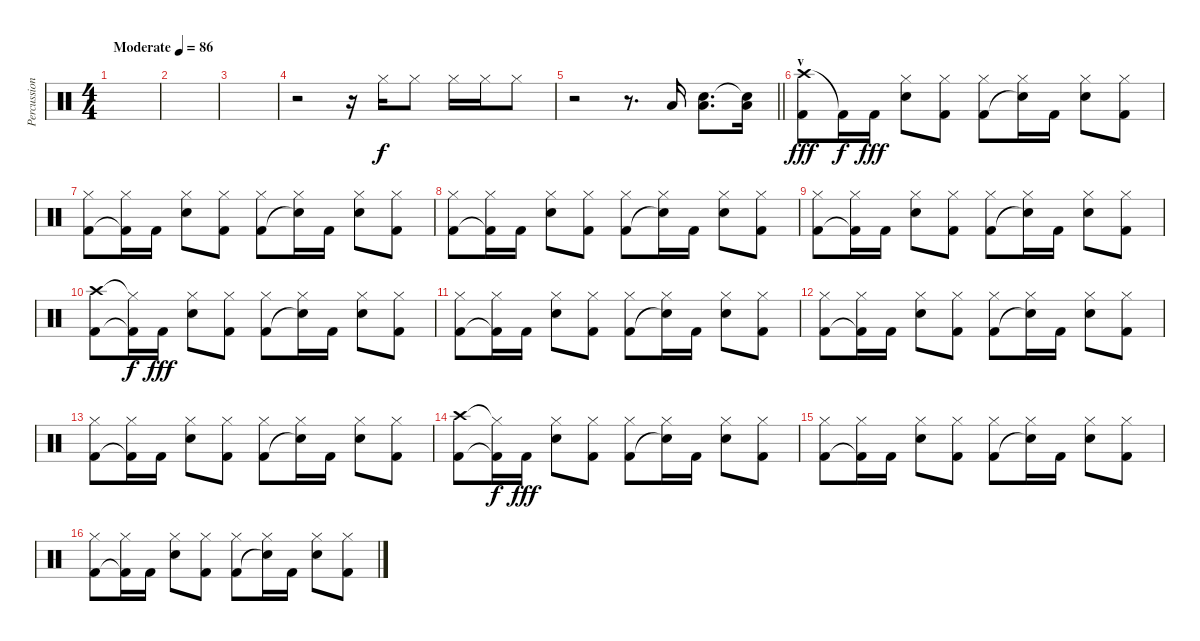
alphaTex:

\track ("Percussion" "Percussion") {instrument percussion}
\staff {score}
\articulation defaults
\ts (4 4)
\tempo (86 "Moderate")
\clef neutral
\ks c
|
|
|
r.2 r.16 "Hi-Hat (closed)".16 "Hi-Hat (closed)".8 "Hi-Hat (closed)".16 "Hi-Hat (closed)".16 "Hi-Hat (closed)".8 |
\barLineRight lightlight
r.2 r.8{d} "Low Floor Tom (hit)".16 ("Electric Snare (hit)" "Low Floor Tom (hit)").8{d} ("Snare (hit)"{t} "Low Floor Tom (hit)").16 |
\section ("" "v")
("Crash high (hit)" "Kick (hit) 2").8{dy fff} "Kick (hit) 2"{t}.16{dy f} "Kick (hit) 2".16{dy fff} ("Hi-Hat (closed)" "Electric Snare (hit)").8 ("Hi-Hat (closed)" "Kick (hit) 2").8 ("Hi-Hat (closed)" "Kick (hit) 2").8 ("Hi-Hat (closed)" "Snare (hit)"{t}).16 "Kick (hit) 2".16 ("Hi-Hat (closed)" "Electric Snare (hit)").8 ("Hi-Hat (closed)" "Kick (hit) 2").8 |
("Hi-Hat (closed)" "Kick (hit) 2").8 ("Hi-Hat (closed)" "Kick (hit) 2"{t}).16 "Kick (hit) 2".16 ("Hi-Hat (closed)" "Electric Snare (hit)").8 ("Hi-Hat (closed)" "Kick (hit) 2").8 ("Hi-Hat (closed)" "Kick (hit) 2").8 ("Hi-Hat (closed)" "Snare (hit)"{t}).16 "Kick (hit) 2".16 ("Hi-Hat (closed)" "Electric Snare (hit)").8 ("Hi-Hat (closed)" "Kick (hit) 2").8 |
("Hi-Hat (closed)" "Kick (hit) 2").8 ("Hi-Hat (closed)" "Kick (hit) 2"{t}).16 "Kick (hit) 2".16 ("Hi-Hat (closed)" "Electric Snare (hit)").8 ("Hi-Hat (closed)" "Kick (hit) 2").8 ("Hi-Hat (closed)" "Kick (hit) 2").8 ("Hi-Hat (closed)" "Snare (hit)"{t}).16 "Kick (hit) 2".16 ("Hi-Hat (closed)" "Electric Snare (hit)").8 ("Hi-Hat (closed)" "Kick (hit) 2").8 |
("Hi-Hat (closed)" "Kick (hit) 2").8 ("Hi-Hat (closed)" "Kick (hit) 2"{t}).16 "Kick (hit) 2".16 ("Hi-Hat (closed)" "Electric Snare (hit)").8 ("Hi-Hat (closed)" "Kick (hit) 2").8 ("Hi-Hat (closed)" "Kick (hit) 2").8 ("Hi-Hat (closed)" "Snare (hit)"{t}).16 "Kick (hit) 2".16 ("Hi-Hat (closed)" "Electric Snare (hit)").8 ("Hi-Hat (closed)" "Kick (hit) 2").8 |
("Crash high (hit)" "Kick (hit) 2").8 ("Hi-Hat (closed)"{t} "Kick (hit) 2"{t}).16{dy f} "Kick (hit) 2".16{dy fff} ("Hi-Hat (closed)" "Electric Snare (hit)").8 ("Hi-Hat (closed)" "Kick (hit) 2").8 ("Hi-Hat (closed)" "Kick (hit) 2").8 ("Hi-Hat (closed)" "Snare (hit)"{t}).16 "Kick (hit) 2".16 ("Hi-Hat (closed)" "Electric Snare (hit)").8 ("Hi-Hat (closed)" "Kick (hit) 2").8 |
("Hi-Hat (closed)" "Kick (hit) 2").8 ("Hi-Hat (closed)" "Kick (hit) 2"{t}).16 "Kick (hit) 2".16 ("Hi-Hat (closed)" "Electric Snare (hit)").8 ("Hi-Hat (closed)" "Kick (hit) 2").8 ("Hi-Hat (closed)" "Kick (hit) 2").8 ("Hi-Hat (closed)" "Snare (hit)"{t}).16 "Kick (hit) 2".16 ("Hi-Hat (closed)" "Electric Snare (hit)").8 ("Hi-Hat (closed)" "Kick (hit) 2").8 |
("Hi-Hat (closed)" "Kick (hit) 2").8 ("Hi-Hat (closed)" "Kick (hit) 2"{t}).16 "Kick (hit) 2".16 ("Hi-Hat (closed)" "Electric Snare (hit)").8 ("Hi-Hat (closed)" "Kick (hit) 2").8 ("Hi-Hat (closed)" "Kick (hit) 2").8 ("Hi-Hat (closed)" "Snare (hit)"{t}).16 "Kick (hit) 2".16 ("Hi-Hat (closed)" "Electric Snare (hit)").8 ("Hi-Hat (closed)" "Kick (hit) 2").8 |
("Hi-Hat (closed)" "Kick (hit) 2").8 ("Hi-Hat (closed)" "Kick (hit) 2"{t}).16 "Kick (hit) 2".16 ("Hi-Hat (closed)" "Electric Snare (hit)").8 ("Hi-Hat (closed)" "Kick (hit) 2").8 ("Hi-Hat (closed)" "Kick (hit) 2").8 ("Hi-Hat (closed)" "Snare (hit)"{t}).16 "Kick (hit) 2".16 ("Hi-Hat (closed)" "Electric Snare (hit)").8 ("Hi-Hat (closed)" "Kick (hit) 2").8 |
("Crash high (hit)" "Kick (hit) 2").8 ("Hi-Hat (closed)"{t} "Kick (hit) 2"{t}).16{dy f} "Kick (hit) 2".16{dy fff} ("Hi-Hat (closed)" "Electric Snare (hit)").8 ("Hi-Hat (closed)" "Kick (hit) 2").8 ("Hi-Hat (closed)" "Kick (hit) 2").8 ("Hi-Hat (closed)" "Snare (hit)"{t}).16 "Kick (hit) 2".16 ("Hi-Hat (closed)" "Electric Snare (hit)").8 ("Hi-Hat (closed)" "Kick (hit) 2").8 |
("Hi-Hat (closed)" "Kick (hit) 2").8 ("Hi-Hat (closed)" "Kick (hit) 2"{t}).16 "Kick (hit) 2".16 ("Hi-Hat (closed)" "Electric Snare (hit)").8 ("Hi-Hat (closed)" "Kick (hit) 2").8 ("Hi-Hat (closed)" "Kick (hit) 2").8 ("Hi-Hat (closed)" "Snare (hit)"{t}).16 "Kick (hit) 2".16 ("Hi-Hat (closed)" "Electric Snare (hit)").8 ("Hi-Hat (closed)" "Kick (hit) 2").8 |
("Hi-Hat (closed)" "Kick (hit) 2").8 ("Hi-Hat (closed)" "Kick (hit) 2"{t}).16 "Kick (hit) 2".16 ("Hi-Hat (closed)" "Electric Snare (hit)").8 ("Hi-Hat (closed)" "Kick (hit) 2").8 ("Hi-Hat (closed)" "Kick (hit) 2").8 ("Hi-Hat (closed)" "Snare (hit)"{t}).16 "Kick (hit) 2".16 ("Hi-Hat (closed)" "Electric Snare (hit)").8 ("Hi-Hat (closed)" "Kick (hit) 2").8
